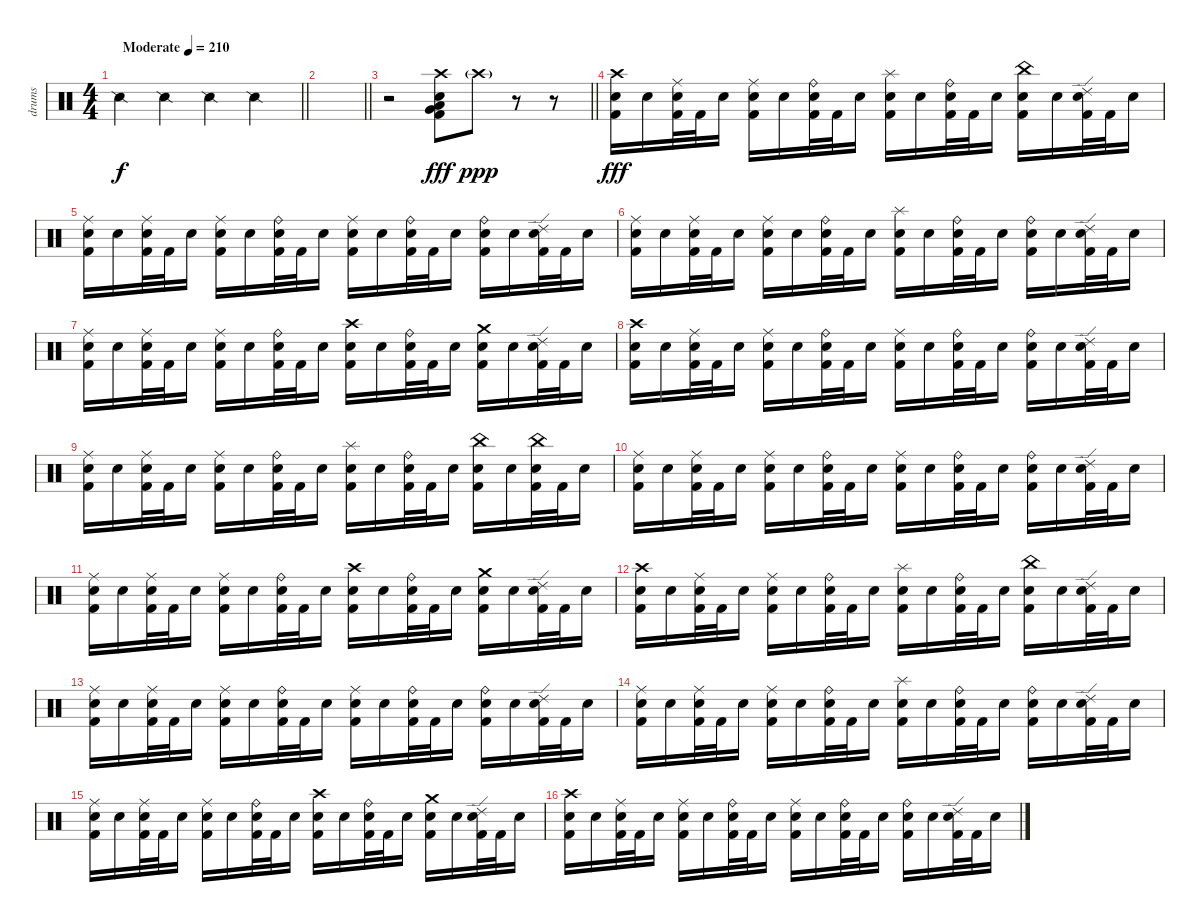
\track ("drums" "drums") {instrument percussion}
\staff {score}
\articulation defaults
\ts (4 4)
\tempo (210 "Moderate")
\clef neutral
\barLineRight lightlight
\ks c "Snare (side stick) 2".4{dy f} "Snare (side stick) 2".4 "Snare (side stick) 2".4 "Snare (side stick) 2".4
|
\section ("" "")
\barLineRight lightlight
|
\barLineRight lightlight
r.2 ("Crash high (hit)" "Electric Snare (hit)" "Very Low Tom (hit)" "Low Floor Tom (hit)" "Kick (hit) 2").8{dy fff} "Crash high (hit)"{g}.8{dy ppp} r.8 r.8 |
\section ("" "")
("Crash high (hit)" "Electric Snare (hit)" "Kick (hit) 2").16{dy fff} "Electric Snare (hit)".16 ("Ride (middle)" "Electric Snare (hit)" "Kick (hit) 2").32 "Kick (hit) 2".32 "Electric Snare (hit)".16 ("Ride (middle)" "Electric Snare (hit)" "Kick (hit) 2").16 "Electric Snare (hit)".16 ("Ride (bell)" "Electric Snare (hit)" "Kick (hit) 2").32 "Kick (hit) 2".32 "Electric Snare (hit)".16 ("Splash (hit)" "Electric Snare (hit)" "Kick (hit) 2").16 "Electric Snare (hit)".16 ("Ride (bell)" "Electric Snare (hit)" "Kick (hit) 2").32 "Kick (hit) 2".32 "Electric Snare (hit)".16 ("China (hit)" "Electric Snare (hit)" "Kick (hit) 2").16 "Electric Snare (hit)".16 ("Ride (edge) 2" "Electric Snare (hit)" "Kick (hit) 2").32 "Kick (hit) 2".32 "Electric Snare (hit)".16 |
("Ride (middle)" "Electric Snare (hit)" "Kick (hit) 2").16 "Electric Snare (hit)".16 ("Ride (middle)" "Electric Snare (hit)" "Kick (hit) 2").32 "Kick (hit) 2".32 "Electric Snare (hit)".16 ("Ride (middle)" "Electric Snare (hit)" "Kick (hit) 2").16 "Electric Snare (hit)".16 ("Ride (bell)" "Electric Snare (hit)" "Kick (hit) 2").32 "Kick (hit) 2".32 "Electric Snare (hit)".16 ("Ride (middle)" "Electric Snare (hit)" "Kick (hit) 2").16 "Electric Snare (hit)".16 ("Ride (bell)" "Electric Snare (hit)" "Kick (hit) 2").32 "Kick (hit) 2".32 "Electric Snare (hit)".16 ("Ride (bell)" "Electric Snare (hit)" "Kick (hit) 2").16 "Electric Snare (hit)".16 ("Ride (edge) 2" "Electric Snare (hit)" "Kick (hit) 2").32 "Kick (hit) 2".32 "Electric Snare (hit)".16 |
("Ride (middle)" "Electric Snare (hit)" "Kick (hit) 2").16 "Electric Snare (hit)".16 ("Ride (middle)" "Electric Snare (hit)" "Kick (hit) 2").32 "Kick (hit) 2".32 "Electric Snare (hit)".16 ("Ride (middle)" "Electric Snare (hit)" "Kick (hit) 2").16 "Electric Snare (hit)".16 ("Ride (bell)" "Electric Snare (hit)" "Kick (hit) 2").32 "Kick (hit) 2".32 "Electric Snare (hit)".16 ("Splash (hit)" "Electric Snare (hit)" "Kick (hit) 2").16 "Electric Snare (hit)".16 ("Ride (bell)" "Electric Snare (hit)" "Kick (hit) 2").32 "Kick (hit) 2".32 "Electric Snare (hit)".16 ("Ride (bell)" "Electric Snare (hit)" "Kick (hit) 2").16 "Electric Snare (hit)".16 ("Ride (edge) 2" "Electric Snare (hit)" "Kick (hit) 2").32 "Kick (hit) 2".32 "Electric Snare (hit)".16 |
("Ride (middle)" "Electric Snare (hit)" "Kick (hit) 2").16 "Electric Snare (hit)".16 ("Ride (middle)" "Electric Snare (hit)" "Kick (hit) 2").32 "Kick (hit) 2".32 "Electric Snare (hit)".16 ("Ride (middle)" "Electric Snare (hit)" "Kick (hit) 2").16 "Electric Snare (hit)".16 ("Ride (bell)" "Electric Snare (hit)" "Kick (hit) 2").32 "Kick (hit) 2".32 "Electric Snare (hit)".16 ("Crash high (hit)" "Electric Snare (hit)" "Kick (hit) 2").16 "Electric Snare (hit)".16 ("Ride (bell)" "Electric Snare (hit)" "Kick (hit) 2").32 "Kick (hit) 2".32 "Electric Snare (hit)".16 ("Crash medium (hit)" "Electric Snare (hit)" "Kick (hit) 2").16 "Electric Snare (hit)".16 ("Ride (edge) 2" "Electric Snare (hit)" "Kick (hit) 2").32 "Kick (hit) 2".32 "Electric Snare (hit)".16 |
("Crash high (hit)" "Electric Snare (hit)" "Kick (hit) 2").16 "Electric Snare (hit)".16 ("Ride (middle)" "Electric Snare (hit)" "Kick (hit) 2").32 "Kick (hit) 2".32 "Electric Snare (hit)".16 ("Ride (middle)" "Electric Snare (hit)" "Kick (hit) 2").16 "Electric Snare (hit)".16 ("Ride (bell)" "Electric Snare (hit)" "Kick (hit) 2").32 "Kick (hit) 2".32 "Electric Snare (hit)".16 ("Ride (middle)" "Electric Snare (hit)" "Kick (hit) 2").16 "Electric Snare (hit)".16 ("Ride (bell)" "Electric Snare (hit)" "Kick (hit) 2").32 "Kick (hit) 2".32 "Electric Snare (hit)".16 ("Ride (bell)" "Electric Snare (hit)" "Kick (hit) 2").16 "Electric Snare (hit)".16 ("Ride (edge) 2" "Electric Snare (hit)" "Kick (hit) 2").32 "Kick (hit) 2".32 "Electric Snare (hit)".16 |
("Ride (middle)" "Electric Snare (hit)" "Kick (hit) 2").16 "Electric Snare (hit)".16 ("Ride (middle)" "Electric Snare (hit)" "Kick (hit) 2").32 "Kick (hit) 2".32 "Electric Snare (hit)".16 ("Ride (middle)" "Electric Snare (hit)" "Kick (hit) 2").16 "Electric Snare (hit)".16 ("Ride (bell)" "Electric Snare (hit)" "Kick (hit) 2").32 "Kick (hit) 2".32 "Electric Snare (hit)".16 ("Splash (hit)" "Electric Snare (hit)" "Kick (hit) 2").16 "Electric Snare (hit)".16 ("Ride (bell)" "Electric Snare (hit)" "Kick (hit) 2").32 "Kick (hit) 2".32 "Electric Snare (hit)".16 ("China (hit)" "Electric Snare (hit)" "Kick (hit) 2").16 "Electric Snare (hit)".16 ("China (hit)" "Electric Snare (hit)" "Kick (hit) 2").32 "Kick (hit) 2".32 "Electric Snare (hit)".16 |
("Ride (middle)" "Electric Snare (hit)" "Kick (hit) 2").16 "Electric Snare (hit)".16 ("Ride (middle)" "Electric Snare (hit)" "Kick (hit) 2").32 "Kick (hit) 2".32 "Electric Snare (hit)".16 ("Ride (middle)" "Electric Snare (hit)" "Kick (hit) 2").16 "Electric Snare (hit)".16 ("Ride (bell)" "Electric Snare (hit)" "Kick (hit) 2").32 "Kick (hit) 2".32 "Electric Snare (hit)".16 ("Ride (middle)" "Electric Snare (hit)" "Kick (hit) 2").16 "Electric Snare (hit)".16 ("Ride (bell)" "Electric Snare (hit)" "Kick (hit) 2").32 "Kick (hit) 2".32 "Electric Snare (hit)".16 ("Ride (bell)" "Electric Snare (hit)" "Kick (hit) 2").16 "Electric Snare (hit)".16 ("Ride (edge) 2" "Electric Snare (hit)" "Kick (hit) 2").32 "Kick (hit) 2".32 "Electric Snare (hit)".16 |
("Ride (middle)" "Electric Snare (hit)" "Kick (hit) 2").16 "Electric Snare (hit)".16 ("Ride (middle)" "Electric Snare (hit)" "Kick (hit) 2").32 "Kick (hit) 2".32 "Electric Snare (hit)".16 ("Ride (middle)" "Electric Snare (hit)" "Kick (hit) 2").16 "Electric Snare (hit)".16 ("Ride (bell)" "Electric Snare (hit)" "Kick (hit) 2").32 "Kick (hit) 2".32 "Electric Snare (hit)".16 ("Crash high (hit)" "Electric Snare (hit)" "Kick (hit) 2").16 "Electric Snare (hit)".16 ("Ride (bell)" "Electric Snare (hit)" "Kick (hit) 2").32 "Kick (hit) 2".32 "Electric Snare (hit)".16 ("Crash medium (hit)" "Electric Snare (hit)" "Kick (hit) 2").16 "Electric Snare (hit)".16 ("Ride (edge) 2" "Electric Snare (hit)" "Kick (hit) 2").32 "Kick (hit) 2".32 "Electric Snare (hit)".16 |
("Crash high (hit)" "Electric Snare (hit)" "Kick (hit) 2").16 "Electric Snare (hit)".16 ("Ride (middle)" "Electric Snare (hit)" "Kick (hit) 2").32 "Kick (hit) 2".32 "Electric Snare (hit)".16 ("Ride (middle)" "Electric Snare (hit)" "Kick (hit) 2").16 "Electric Snare (hit)".16 ("Ride (bell)" "Electric Snare (hit)" "Kick (hit) 2").32 "Kick (hit) 2".32 "Electric Snare (hit)".16 ("Splash (hit)" "Electric Snare (hit)" "Kick (hit) 2").16 "Electric Snare (hit)".16 ("Ride (bell)" "Electric Snare (hit)" "Kick (hit) 2").32 "Kick (hit) 2".32 "Electric Snare (hit)".16 ("China (hit)" "Electric Snare (hit)" "Kick (hit) 2").16 "Electric Snare (hit)".16 ("Ride (edge) 2" "Electric Snare (hit)" "Kick (hit) 2").32 "Kick (hit) 2".32 "Electric Snare (hit)".16 |
("Ride (middle)" "Electric Snare (hit)" "Kick (hit) 2").16 "Electric Snare (hit)".16 ("Ride (middle)" "Electric Snare (hit)" "Kick (hit) 2").32 "Kick (hit) 2".32 "Electric Snare (hit)".16 ("Ride (middle)" "Electric Snare (hit)" "Kick (hit) 2").16 "Electric Snare (hit)".16 ("Ride (bell)" "Electric Snare (hit)" "Kick (hit) 2").32 "Kick (hit) 2".32 "Electric Snare (hit)".16 ("Ride (middle)" "Electric Snare (hit)" "Kick (hit) 2").16 "Electric Snare (hit)".16 ("Ride (bell)" "Electric Snare (hit)" "Kick (hit) 2").32 "Kick (hit) 2".32 "Electric Snare (hit)".16 ("Ride (bell)" "Electric Snare (hit)" "Kick (hit) 2").16 "Electric Snare (hit)".16 ("Ride (edge) 2" "Electric Snare (hit)" "Kick (hit) 2").32 "Kick (hit) 2".32 "Electric Snare (hit)".16 |
("Ride (middle)" "Electric Snare (hit)" "Kick (hit) 2").16 "Electric Snare (hit)".16 ("Ride (middle)" "Electric Snare (hit)" "Kick (hit) 2").32 "Kick (hit) 2".32 "Electric Snare (hit)".16 ("Ride (middle)" "Electric Snare (hit)" "Kick (hit) 2").16 "Electric Snare (hit)".16 ("Ride (bell)" "Electric Snare (hit)" "Kick (hit) 2").32 "Kick (hit) 2".32 "Electric Snare (hit)".16 ("Splash (hit)" "Electric Snare (hit)" "Kick (hit) 2").16 "Electric Snare (hit)".16 ("Ride (bell)" "Electric Snare (hit)" "Kick (hit) 2").32 "Kick (hit) 2".32 "Electric Snare (hit)".16 ("Ride (bell)" "Electric Snare (hit)" "Kick (hit) 2").16 "Electric Snare (hit)".16 ("Ride (edge) 2" "Electric Snare (hit)" "Kick (hit) 2").32 "Kick (hit) 2".32 "Electric Snare (hit)".16 |
("Ride (middle)" "Electric Snare (hit)" "Kick (hit) 2").16 "Electric Snare (hit)".16 ("Ride (middle)" "Electric Snare (hit)" "Kick (hit) 2").32 "Kick (hit) 2".32 "Electric Snare (hit)".16 ("Ride (middle)" "Electric Snare (hit)" "Kick (hit) 2").16 "Electric Snare (hit)".16 ("Ride (bell)" "Electric Snare (hit)" "Kick (hit) 2").32 "Kick (hit) 2".32 "Electric Snare (hit)".16 ("Crash high (hit)" "Electric Snare (hit)" "Kick (hit) 2").16 "Electric Snare (hit)".16 ("Ride (bell)" "Electric Snare (hit)" "Kick (hit) 2").32 "Kick (hit) 2".32 "Electric Snare (hit)".16 ("Crash medium (hit)" "Electric Snare (hit)" "Kick (hit) 2").16 "Electric Snare (hit)".16 ("Ride (edge) 2" "Electric Snare (hit)" "Kick (hit) 2").32 "Kick (hit) 2".32 "Electric Snare (hit)".16 |
("Crash high (hit)" "Electric Snare (hit)" "Kick (hit) 2").16 "Electric Snare (hit)".16 ("Ride (middle)" "Electric Snare (hit)" "Kick (hit) 2").32 "Kick (hit) 2".32 "Electric Snare (hit)".16 ("Ride (middle)" "Electric Snare (hit)" "Kick (hit) 2").16 "Electric Snare (hit)".16 ("Ride (bell)" "Electric Snare (hit)" "Kick (hit) 2").32 "Kick (hit) 2".32 "Electric Snare (hit)".16 ("Ride (middle)" "Electric Snare (hit)" "Kick (hit) 2").16 "Electric Snare (hit)".16 ("Ride (bell)" "Electric Snare (hit)" "Kick (hit) 2").32 "Kick (hit) 2".32 "Electric Snare (hit)".16 ("Ride (bell)" "Electric Snare (hit)" "Kick (hit) 2").16 "Electric Snare (hit)".16 ("Ride (edge) 2" "Electric Snare (hit)" "Kick (hit) 2").32 "Kick (hit) 2".32 "Electric Snare (hit)".16
